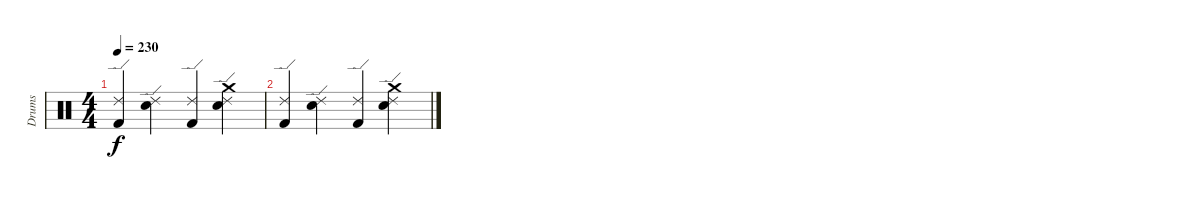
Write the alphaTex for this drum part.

\track ("Drums" "Drums") {instrument percussion}
\staff {score}
\articulation defaults
\ts (4 4)
\tempo 230
\clef neutral
\ks c
("Kick (hit) 2" "Ride (edge) 2").4{dy f} ("Snare (hit) 2" "Ride (edge) 2").4 ("Kick (hit) 2" "Ride (edge) 2").4 ("Crash medium (hit)" "Snare (hit) 2" "Ride (edge) 2").4 |
("Kick (hit) 2" "Ride (edge) 2").4 ("Snare (hit) 2" "Ride (edge) 2").4 ("Kick (hit) 2" "Ride (edge) 2").4 ("Crash medium (hit)" "Snare (hit) 2" "Ride (edge) 2").4
